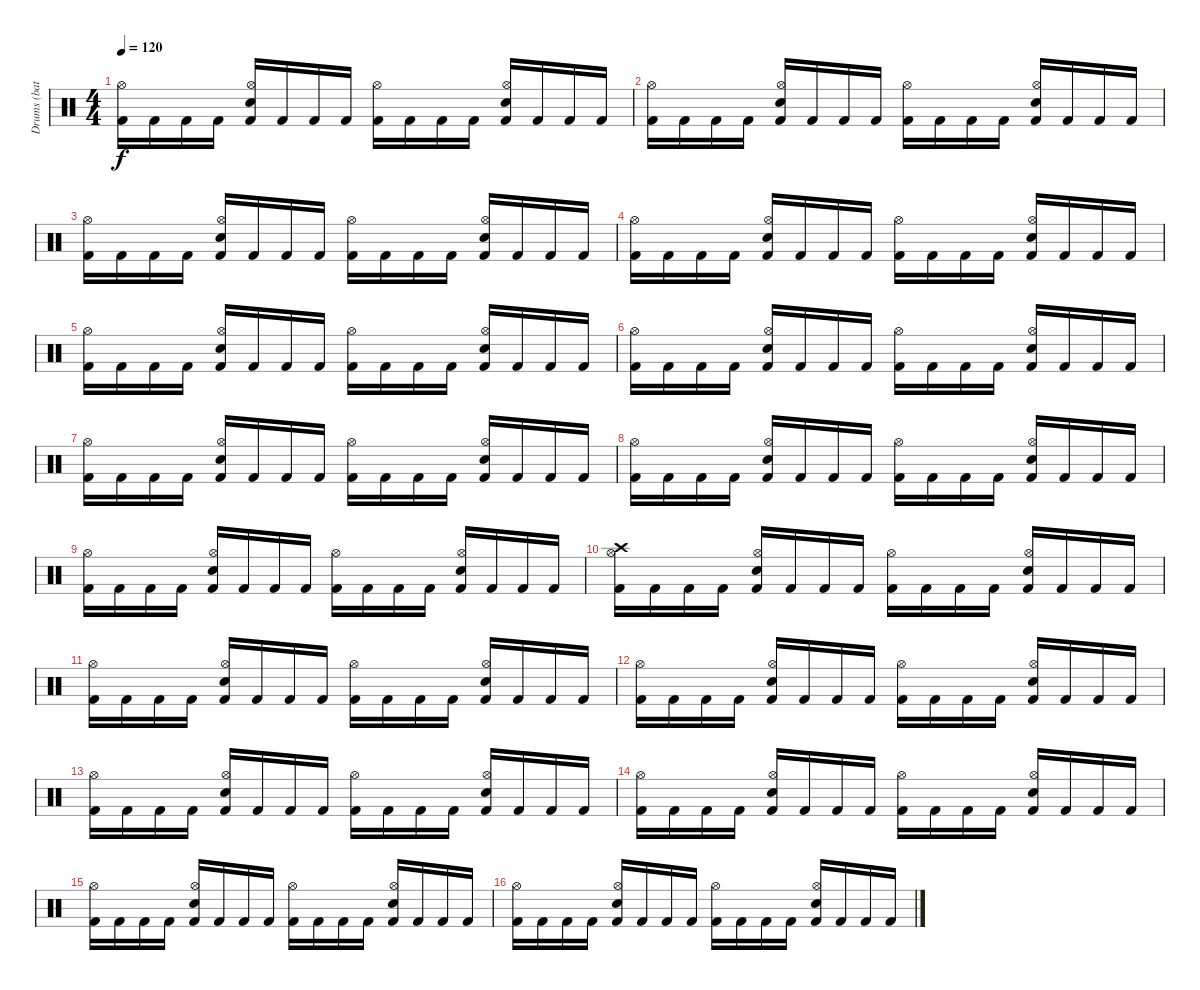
\track ("Drums (bateria)" "Drums (bat") {instrument percussion}
\staff {score}
\articulation defaults
\ts (4 4)
\tempo 120
\clef neutral
\ks c
("Kick (hit) 2" "Hi-Hat (open)").16{dy f} "Kick (hit) 2".16 "Kick (hit) 2".16 "Kick (hit) 2".16 ("Kick (hit) 2" "Snare (hit) 2" "Hi-Hat (open)").16 "Kick (hit) 2".16 "Kick (hit) 2".16 "Kick (hit) 2".16 ("Kick (hit) 2" "Hi-Hat (open)").16 "Kick (hit) 2".16 "Kick (hit) 2".16 "Kick (hit) 2".16 ("Kick (hit) 2" "Snare (hit) 2" "Hi-Hat (open)").16 "Kick (hit) 2".16 "Kick (hit) 2".16 "Kick (hit) 2".16 |
("Kick (hit) 2" "Hi-Hat (open)").16 "Kick (hit) 2".16 "Kick (hit) 2".16 "Kick (hit) 2".16 ("Kick (hit) 2" "Snare (hit) 2" "Hi-Hat (open)").16 "Kick (hit) 2".16 "Kick (hit) 2".16 "Kick (hit) 2".16 ("Kick (hit) 2" "Hi-Hat (open)").16 "Kick (hit) 2".16 "Kick (hit) 2".16 "Kick (hit) 2".16 ("Kick (hit) 2" "Snare (hit) 2" "Hi-Hat (open)").16 "Kick (hit) 2".16 "Kick (hit) 2".16 "Kick (hit) 2".16 |
("Kick (hit) 2" "Hi-Hat (open)").16 "Kick (hit) 2".16 "Kick (hit) 2".16 "Kick (hit) 2".16 ("Kick (hit) 2" "Snare (hit) 2" "Hi-Hat (open)").16 "Kick (hit) 2".16 "Kick (hit) 2".16 "Kick (hit) 2".16 ("Kick (hit) 2" "Hi-Hat (open)").16 "Kick (hit) 2".16 "Kick (hit) 2".16 "Kick (hit) 2".16 ("Kick (hit) 2" "Snare (hit) 2" "Hi-Hat (open)").16 "Kick (hit) 2".16 "Kick (hit) 2".16 "Kick (hit) 2".16 |
("Kick (hit) 2" "Hi-Hat (open)").16 "Kick (hit) 2".16 "Kick (hit) 2".16 "Kick (hit) 2".16 ("Kick (hit) 2" "Snare (hit) 2" "Hi-Hat (open)").16 "Kick (hit) 2".16 "Kick (hit) 2".16 "Kick (hit) 2".16 ("Kick (hit) 2" "Hi-Hat (open)").16 "Kick (hit) 2".16 "Kick (hit) 2".16 "Kick (hit) 2".16 ("Kick (hit) 2" "Snare (hit) 2" "Hi-Hat (open)").16 "Kick (hit) 2".16 "Kick (hit) 2".16 "Kick (hit) 2".16 |
("Kick (hit) 2" "Hi-Hat (open)").16 "Kick (hit) 2".16 "Kick (hit) 2".16 "Kick (hit) 2".16 ("Kick (hit) 2" "Snare (hit) 2" "Hi-Hat (open)").16 "Kick (hit) 2".16 "Kick (hit) 2".16 "Kick (hit) 2".16 ("Kick (hit) 2" "Hi-Hat (open)").16 "Kick (hit) 2".16 "Kick (hit) 2".16 "Kick (hit) 2".16 ("Kick (hit) 2" "Snare (hit) 2" "Hi-Hat (open)").16 "Kick (hit) 2".16 "Kick (hit) 2".16 "Kick (hit) 2".16 |
("Kick (hit) 2" "Hi-Hat (open)").16 "Kick (hit) 2".16 "Kick (hit) 2".16 "Kick (hit) 2".16 ("Kick (hit) 2" "Snare (hit) 2" "Hi-Hat (open)").16 "Kick (hit) 2".16 "Kick (hit) 2".16 "Kick (hit) 2".16 ("Kick (hit) 2" "Hi-Hat (open)").16 "Kick (hit) 2".16 "Kick (hit) 2".16 "Kick (hit) 2".16 ("Kick (hit) 2" "Snare (hit) 2" "Hi-Hat (open)").16 "Kick (hit) 2".16 "Kick (hit) 2".16 "Kick (hit) 2".16 |
("Kick (hit) 2" "Hi-Hat (open)").16 "Kick (hit) 2".16 "Kick (hit) 2".16 "Kick (hit) 2".16 ("Kick (hit) 2" "Snare (hit) 2" "Hi-Hat (open)").16 "Kick (hit) 2".16 "Kick (hit) 2".16 "Kick (hit) 2".16 ("Kick (hit) 2" "Hi-Hat (open)").16 "Kick (hit) 2".16 "Kick (hit) 2".16 "Kick (hit) 2".16 ("Kick (hit) 2" "Snare (hit) 2" "Hi-Hat (open)").16 "Kick (hit) 2".16 "Kick (hit) 2".16 "Kick (hit) 2".16 |
("Kick (hit) 2" "Hi-Hat (open)").16 "Kick (hit) 2".16 "Kick (hit) 2".16 "Kick (hit) 2".16 ("Kick (hit) 2" "Snare (hit) 2" "Hi-Hat (open)").16 "Kick (hit) 2".16 "Kick (hit) 2".16 "Kick (hit) 2".16 ("Kick (hit) 2" "Hi-Hat (open)").16 "Kick (hit) 2".16 "Kick (hit) 2".16 "Kick (hit) 2".16 ("Kick (hit) 2" "Snare (hit) 2" "Hi-Hat (open)").16 "Kick (hit) 2".16 "Kick (hit) 2".16 "Kick (hit) 2".16 |
("Kick (hit) 2" "Hi-Hat (open)").16 "Kick (hit) 2".16 "Kick (hit) 2".16 "Kick (hit) 2".16 ("Kick (hit) 2" "Snare (hit) 2" "Hi-Hat (open)").16 "Kick (hit) 2".16 "Kick (hit) 2".16 "Kick (hit) 2".16 ("Kick (hit) 2" "Hi-Hat (open)").16 "Kick (hit) 2".16 "Kick (hit) 2".16 "Kick (hit) 2".16 ("Kick (hit) 2" "Snare (hit) 2" "Hi-Hat (open)").16 "Kick (hit) 2".16 "Kick (hit) 2".16 "Kick (hit) 2".16 |
("Kick (hit) 2" "Hi-Hat (open)" "Crash high (hit)").16 "Kick (hit) 2".16 "Kick (hit) 2".16 "Kick (hit) 2".16 ("Kick (hit) 2" "Snare (hit) 2" "Hi-Hat (open)").16 "Kick (hit) 2".16 "Kick (hit) 2".16 "Kick (hit) 2".16 ("Kick (hit) 2" "Hi-Hat (open)").16 "Kick (hit) 2".16 "Kick (hit) 2".16 "Kick (hit) 2".16 ("Kick (hit) 2" "Snare (hit) 2" "Hi-Hat (open)").16 "Kick (hit) 2".16 "Kick (hit) 2".16 "Kick (hit) 2".16 |
("Kick (hit) 2" "Hi-Hat (open)").16 "Kick (hit) 2".16 "Kick (hit) 2".16 "Kick (hit) 2".16 ("Kick (hit) 2" "Snare (hit) 2" "Hi-Hat (open)").16 "Kick (hit) 2".16 "Kick (hit) 2".16 "Kick (hit) 2".16 ("Kick (hit) 2" "Hi-Hat (open)").16 "Kick (hit) 2".16 "Kick (hit) 2".16 "Kick (hit) 2".16 ("Kick (hit) 2" "Snare (hit) 2" "Hi-Hat (open)").16 "Kick (hit) 2".16 "Kick (hit) 2".16 "Kick (hit) 2".16 |
("Kick (hit) 2" "Hi-Hat (open)").16 "Kick (hit) 2".16 "Kick (hit) 2".16 "Kick (hit) 2".16 ("Kick (hit) 2" "Snare (hit) 2" "Hi-Hat (open)").16 "Kick (hit) 2".16 "Kick (hit) 2".16 "Kick (hit) 2".16 ("Kick (hit) 2" "Hi-Hat (open)").16 "Kick (hit) 2".16 "Kick (hit) 2".16 "Kick (hit) 2".16 ("Kick (hit) 2" "Snare (hit) 2" "Hi-Hat (open)").16 "Kick (hit) 2".16 "Kick (hit) 2".16 "Kick (hit) 2".16 |
("Kick (hit) 2" "Hi-Hat (open)").16 "Kick (hit) 2".16 "Kick (hit) 2".16 "Kick (hit) 2".16 ("Kick (hit) 2" "Snare (hit) 2" "Hi-Hat (open)").16 "Kick (hit) 2".16 "Kick (hit) 2".16 "Kick (hit) 2".16 ("Kick (hit) 2" "Hi-Hat (open)").16 "Kick (hit) 2".16 "Kick (hit) 2".16 "Kick (hit) 2".16 ("Kick (hit) 2" "Snare (hit) 2" "Hi-Hat (open)").16 "Kick (hit) 2".16 "Kick (hit) 2".16 "Kick (hit) 2".16 |
("Kick (hit) 2" "Hi-Hat (open)").16 "Kick (hit) 2".16 "Kick (hit) 2".16 "Kick (hit) 2".16 ("Kick (hit) 2" "Snare (hit) 2" "Hi-Hat (open)").16 "Kick (hit) 2".16 "Kick (hit) 2".16 "Kick (hit) 2".16 ("Kick (hit) 2" "Hi-Hat (open)").16 "Kick (hit) 2".16 "Kick (hit) 2".16 "Kick (hit) 2".16 ("Kick (hit) 2" "Snare (hit) 2" "Hi-Hat (open)").16 "Kick (hit) 2".16 "Kick (hit) 2".16 "Kick (hit) 2".16 |
("Kick (hit) 2" "Hi-Hat (open)").16 "Kick (hit) 2".16 "Kick (hit) 2".16 "Kick (hit) 2".16 ("Kick (hit) 2" "Snare (hit) 2" "Hi-Hat (open)").16 "Kick (hit) 2".16 "Kick (hit) 2".16 "Kick (hit) 2".16 ("Kick (hit) 2" "Hi-Hat (open)").16 "Kick (hit) 2".16 "Kick (hit) 2".16 "Kick (hit) 2".16 ("Kick (hit) 2" "Snare (hit) 2" "Hi-Hat (open)").16 "Kick (hit) 2".16 "Kick (hit) 2".16 "Kick (hit) 2".16 |
("Kick (hit) 2" "Hi-Hat (open)").16 "Kick (hit) 2".16 "Kick (hit) 2".16 "Kick (hit) 2".16 ("Kick (hit) 2" "Snare (hit) 2" "Hi-Hat (open)").16 "Kick (hit) 2".16 "Kick (hit) 2".16 "Kick (hit) 2".16 ("Kick (hit) 2" "Hi-Hat (open)").16 "Kick (hit) 2".16 "Kick (hit) 2".16 "Kick (hit) 2".16 ("Kick (hit) 2" "Snare (hit) 2" "Hi-Hat (open)").16 "Kick (hit) 2".16 "Kick (hit) 2".16 "Kick (hit) 2".16
